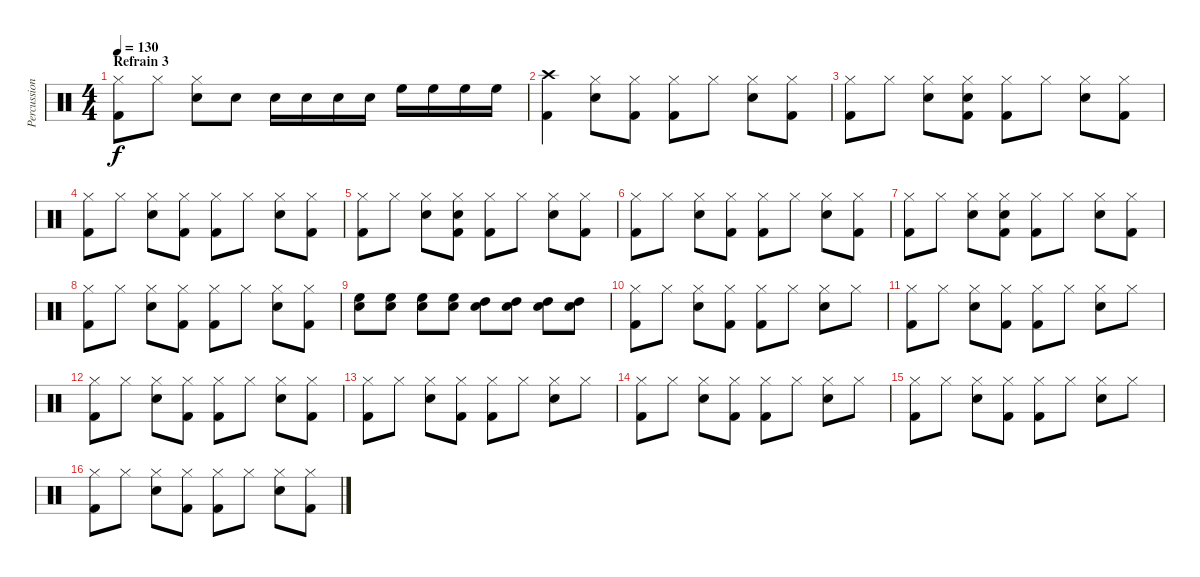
\track ("Percussion" "Percussion") {instrument percussion}
\staff {score}
\articulation defaults
\ts (4 4)
\section ("" "Refrain 3")
\tempo 130
\clef neutral
\ks c
("Hi-Hat (closed)" "Kick (hit) 2").8{dy f} "Hi-Hat (closed)".8 ("Hi-Hat (closed)" "Snare (hit) 2").8 "Snare (hit) 2".8 "Snare (hit) 2".16 "Snare (hit) 2".16 "Snare (hit) 2".16 "Snare (hit) 2".16 "High Floor Tom (hit)".16 "High Floor Tom (hit)".16 "High Floor Tom (hit)".16 "High Floor Tom (hit)".16 |
("Crash high (hit)" "Kick (hit) 2").4 ("Hi-Hat (closed)" "Snare (hit) 2").8 ("Hi-Hat (closed)" "Kick (hit) 2").8 ("Hi-Hat (closed)" "Kick (hit) 2").8 "Hi-Hat (closed)".8 ("Hi-Hat (closed)" "Snare (hit) 2").8 ("Hi-Hat (closed)" "Kick (hit) 2").8 |
("Hi-Hat (closed)" "Kick (hit) 2").8 "Hi-Hat (closed)".8 ("Hi-Hat (closed)" "Snare (hit) 2").8 ("Hi-Hat (closed)" "Snare (hit) 2" "Kick (hit) 2").8 ("Hi-Hat (closed)" "Kick (hit) 2").8 "Hi-Hat (closed)".8 ("Hi-Hat (closed)" "Snare (hit) 2").8 ("Hi-Hat (closed)" "Kick (hit) 2").8 |
("Hi-Hat (closed)" "Kick (hit) 2").8 "Hi-Hat (closed)".8 ("Hi-Hat (closed)" "Snare (hit) 2").8 ("Hi-Hat (closed)" "Kick (hit) 2").8 ("Hi-Hat (closed)" "Kick (hit) 2").8 "Hi-Hat (closed)".8 ("Hi-Hat (closed)" "Snare (hit) 2").8 ("Hi-Hat (closed)" "Kick (hit) 2").8 |
("Hi-Hat (closed)" "Kick (hit) 2").8 "Hi-Hat (closed)".8 ("Hi-Hat (closed)" "Snare (hit) 2").8 ("Hi-Hat (closed)" "Snare (hit) 2" "Kick (hit) 2").8 ("Hi-Hat (closed)" "Kick (hit) 2").8 "Hi-Hat (closed)".8 ("Hi-Hat (closed)" "Snare (hit) 2").8 ("Hi-Hat (closed)" "Kick (hit) 2").8 |
("Hi-Hat (closed)" "Kick (hit) 2").8 "Hi-Hat (closed)".8 ("Hi-Hat (closed)" "Snare (hit) 2").8 ("Hi-Hat (closed)" "Kick (hit) 2").8 ("Hi-Hat (closed)" "Kick (hit) 2").8 "Hi-Hat (closed)".8 ("Hi-Hat (closed)" "Snare (hit) 2").8 ("Hi-Hat (closed)" "Kick (hit) 2").8 |
("Hi-Hat (closed)" "Kick (hit) 2").8 "Hi-Hat (closed)".8 ("Hi-Hat (closed)" "Snare (hit) 2").8 ("Hi-Hat (closed)" "Snare (hit) 2" "Kick (hit) 2").8 ("Hi-Hat (closed)" "Kick (hit) 2").8 "Hi-Hat (closed)".8 ("Hi-Hat (closed)" "Snare (hit) 2").8 ("Hi-Hat (closed)" "Kick (hit) 2").8 |
("Hi-Hat (closed)" "Kick (hit) 2").8 "Hi-Hat (closed)".8 ("Hi-Hat (closed)" "Snare (hit) 2").8 ("Hi-Hat (closed)" "Kick (hit) 2").8 ("Hi-Hat (closed)" "Kick (hit) 2").8 "Hi-Hat (closed)".8 ("Hi-Hat (closed)" "Snare (hit) 2").8 ("Hi-Hat (closed)" "Kick (hit) 2").8 |
("Snare (hit) 2" "High Floor Tom (hit)").8 ("Snare (hit) 2" "High Floor Tom (hit)").8 ("Snare (hit) 2" "High Floor Tom (hit)").8 ("Snare (hit) 2" "High Floor Tom (hit)").8 ("Snare (hit) 2" "High Tom (hit)").8 ("Snare (hit) 2" "High Tom (hit)").8 ("Snare (hit) 2" "High Tom (hit)").8 ("Snare (hit) 2" "High Tom (hit)").8 |
("Hi-Hat (closed)" "Kick (hit) 2").8 "Hi-Hat (closed)".8 ("Hi-Hat (closed)" "Snare (hit) 2").8 ("Hi-Hat (closed)" "Kick (hit) 2").8 ("Hi-Hat (closed)" "Kick (hit) 2").8 "Hi-Hat (closed)".8 ("Hi-Hat (closed)" "Snare (hit) 2").8 "Hi-Hat (closed)".8 |
("Hi-Hat (closed)" "Kick (hit) 2").8 "Hi-Hat (closed)".8 ("Hi-Hat (closed)" "Snare (hit) 2").8 ("Hi-Hat (closed)" "Kick (hit) 2").8 ("Hi-Hat (closed)" "Kick (hit) 2").8 "Hi-Hat (closed)".8 ("Hi-Hat (closed)" "Snare (hit) 2").8 "Hi-Hat (closed)".8 |
("Hi-Hat (closed)" "Kick (hit) 2").8 "Hi-Hat (closed)".8 ("Hi-Hat (closed)" "Snare (hit) 2").8 ("Hi-Hat (closed)" "Kick (hit) 2").8 ("Hi-Hat (closed)" "Kick (hit) 2").8 "Hi-Hat (closed)".8 ("Hi-Hat (closed)" "Snare (hit) 2").8 ("Hi-Hat (closed)" "Kick (hit) 2").8 |
("Hi-Hat (closed)" "Kick (hit) 2").8 "Hi-Hat (closed)".8 ("Hi-Hat (closed)" "Snare (hit) 2").8 ("Hi-Hat (closed)" "Kick (hit) 2").8 ("Hi-Hat (closed)" "Kick (hit) 2").8 "Hi-Hat (closed)".8 ("Hi-Hat (closed)" "Snare (hit) 2").8 "Hi-Hat (closed)".8 |
("Hi-Hat (closed)" "Kick (hit) 2").8 "Hi-Hat (closed)".8 ("Hi-Hat (closed)" "Snare (hit) 2").8 ("Hi-Hat (closed)" "Kick (hit) 2").8 ("Hi-Hat (closed)" "Kick (hit) 2").8 "Hi-Hat (closed)".8 ("Hi-Hat (closed)" "Snare (hit) 2").8 "Hi-Hat (closed)".8 |
("Hi-Hat (closed)" "Kick (hit) 2").8 "Hi-Hat (closed)".8 ("Hi-Hat (closed)" "Snare (hit) 2").8 ("Hi-Hat (closed)" "Kick (hit) 2").8 ("Hi-Hat (closed)" "Kick (hit) 2").8 "Hi-Hat (closed)".8 ("Hi-Hat (closed)" "Snare (hit) 2").8 "Hi-Hat (closed)".8 |
("Hi-Hat (closed)" "Kick (hit) 2").8 "Hi-Hat (closed)".8 ("Hi-Hat (closed)" "Snare (hit) 2").8 ("Hi-Hat (closed)" "Kick (hit) 2").8 ("Hi-Hat (closed)" "Kick (hit) 2").8 "Hi-Hat (closed)".8 ("Hi-Hat (closed)" "Snare (hit) 2").8 ("Hi-Hat (closed)" "Kick (hit) 2").8
